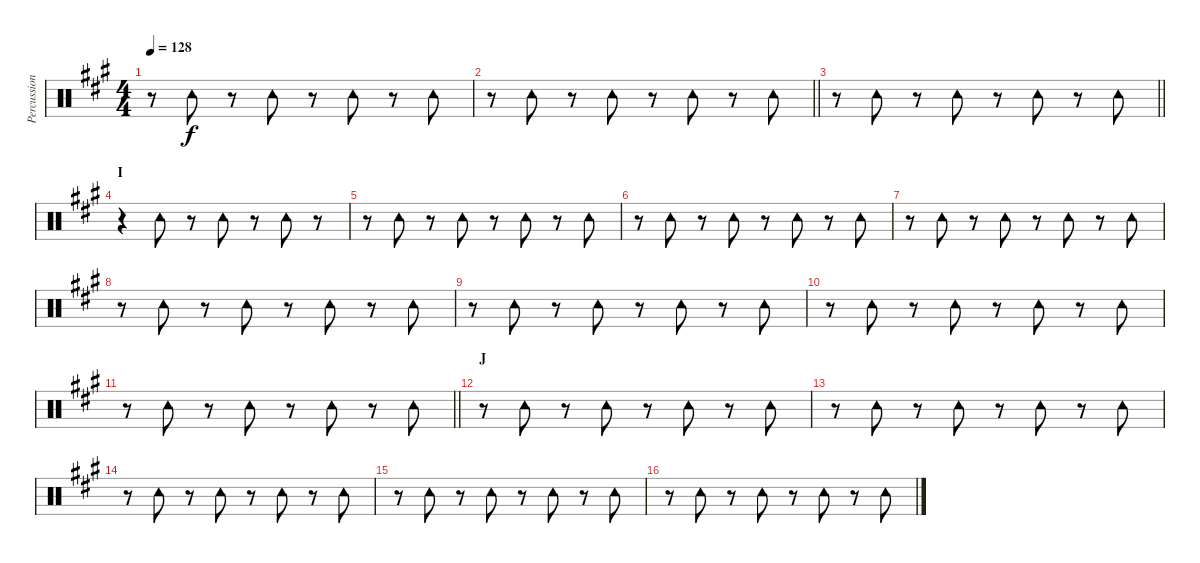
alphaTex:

\track ("Percussion" "Percussion") {instrument percussion}
\staff {score}
\articulation defaults
\ts (4 4)
\tempo 128
\clef neutral
\ks a
r.8{dy f} "Tambourine (hit)".8 r.8 "Tambourine (hit)".8 r.8 "Tambourine (hit)".8 r.8 "Tambourine (hit)".8 |
\barLineRight lightlight
r.8 "Tambourine (hit)".8 r.8 "Tambourine (hit)".8 r.8 "Tambourine (hit)".8 r.8 "Tambourine (hit)".8 |
\barLineRight lightlight
r.8 "Tambourine (hit)".8 r.8 "Tambourine (hit)".8 r.8 "Tambourine (hit)".8 r.8 "Tambourine (hit)".8 |
\section ("" "I")
r.4 "Tambourine (hit)".8 r.8 "Tambourine (hit)".8 r.8 "Tambourine (hit)".8 r.8 |
r.8 "Tambourine (hit)".8 r.8 "Tambourine (hit)".8 r.8 "Tambourine (hit)".8 r.8 "Tambourine (hit)".8 |
r.8 "Tambourine (hit)".8 r.8 "Tambourine (hit)".8 r.8 "Tambourine (hit)".8 r.8 "Tambourine (hit)".8 |
r.8 "Tambourine (hit)".8 r.8 "Tambourine (hit)".8 r.8 "Tambourine (hit)".8 r.8 "Tambourine (hit)".8 |
r.8 "Tambourine (hit)".8 r.8 "Tambourine (hit)".8 r.8 "Tambourine (hit)".8 r.8 "Tambourine (hit)".8 |
r.8 "Tambourine (hit)".8 r.8 "Tambourine (hit)".8 r.8 "Tambourine (hit)".8 r.8 "Tambourine (hit)".8 |
r.8 "Tambourine (hit)".8 r.8 "Tambourine (hit)".8 r.8 "Tambourine (hit)".8 r.8 "Tambourine (hit)".8 |
\barLineRight lightlight
r.8 "Tambourine (hit)".8 r.8 "Tambourine (hit)".8 r.8 "Tambourine (hit)".8 r.8 "Tambourine (hit)".8 |
\section ("" "J")
r.8 "Tambourine (hit)".8 r.8 "Tambourine (hit)".8 r.8 "Tambourine (hit)".8 r.8 "Tambourine (hit)".8 |
r.8 "Tambourine (hit)".8 r.8 "Tambourine (hit)".8 r.8 "Tambourine (hit)".8 r.8 "Tambourine (hit)".8 |
r.8 "Tambourine (hit)".8 r.8 "Tambourine (hit)".8 r.8 "Tambourine (hit)".8 r.8 "Tambourine (hit)".8 |
r.8 "Tambourine (hit)".8 r.8 "Tambourine (hit)".8 r.8 "Tambourine (hit)".8 r.8 "Tambourine (hit)".8 |
r.8 "Tambourine (hit)".8 r.8 "Tambourine (hit)".8 r.8 "Tambourine (hit)".8 r.8 "Tambourine (hit)".8
